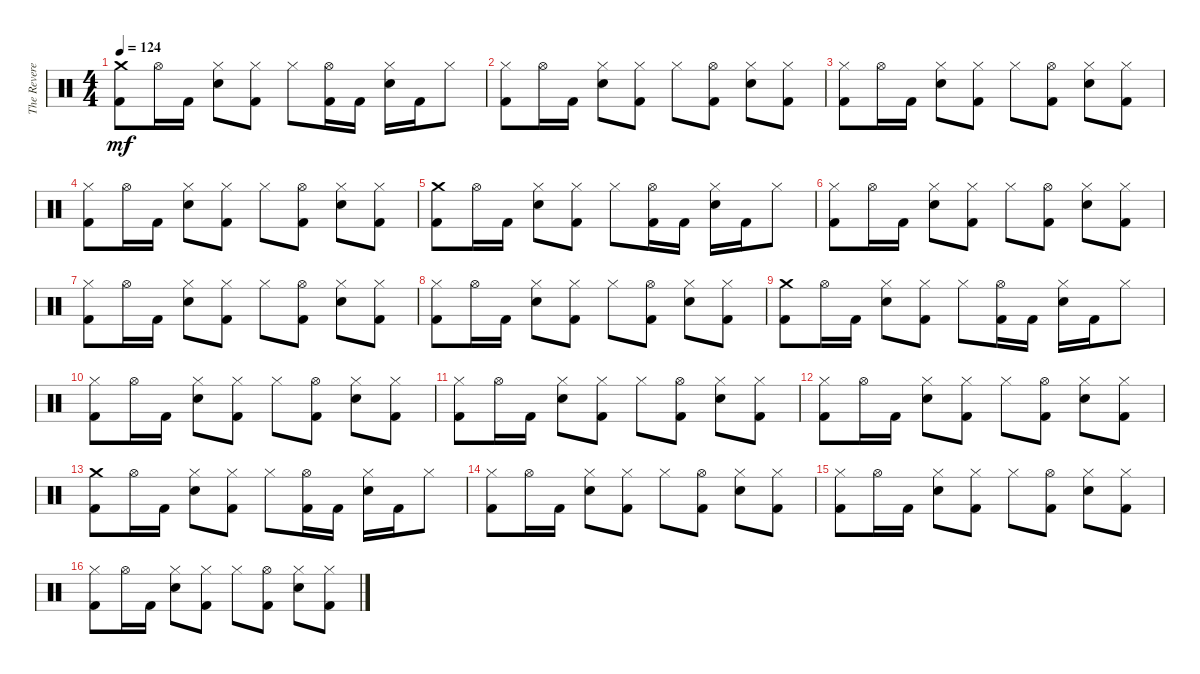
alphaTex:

\track ("The Reverend" "The Revere") {instrument percussion}
\staff {score}
\articulation defaults
\ts (4 4)
\tempo 124
\clef neutral
\ks c
("Crash medium (hit)" "Kick (hit) 2").8{dy mf} "Hi-Hat (open)".16 "Kick (hit) 2".16 ("Hi-Hat (closed)" "Electric Snare (hit)").8 ("Hi-Hat (closed)" "Kick (hit) 2").8 "Hi-Hat (closed)".8 ("Hi-Hat (open)" "Kick (hit) 2").16 "Kick (hit) 2".16 ("Hi-Hat (closed)" "Electric Snare (hit)").16 "Kick (hit) 2".16 "Hi-Hat (closed)".8 |
("Hi-Hat (closed)" "Kick (hit) 2").8 "Hi-Hat (open)".16 "Kick (hit) 2".16 ("Hi-Hat (closed)" "Electric Snare (hit)").8 ("Hi-Hat (closed)" "Kick (hit) 2").8 "Hi-Hat (closed)".8 ("Hi-Hat (open)" "Kick (hit) 2").8 ("Hi-Hat (closed)" "Electric Snare (hit)").8 ("Hi-Hat (closed)" "Kick (hit) 2").8 |
("Hi-Hat (closed)" "Kick (hit) 2").8 "Hi-Hat (open)".16 "Kick (hit) 2".16 ("Hi-Hat (closed)" "Electric Snare (hit)").8 ("Hi-Hat (closed)" "Kick (hit) 2").8 "Hi-Hat (closed)".8 ("Hi-Hat (open)" "Kick (hit) 2").8 ("Hi-Hat (closed)" "Electric Snare (hit)").8 ("Hi-Hat (closed)" "Kick (hit) 2").8 |
("Hi-Hat (closed)" "Kick (hit) 2").8 "Hi-Hat (open)".16 "Kick (hit) 2".16 ("Hi-Hat (closed)" "Electric Snare (hit)").8 ("Hi-Hat (closed)" "Kick (hit) 2").8 "Hi-Hat (closed)".8 ("Hi-Hat (open)" "Kick (hit) 2").8 ("Hi-Hat (closed)" "Electric Snare (hit)").8 ("Hi-Hat (closed)" "Kick (hit) 2").8 |
("Crash medium (hit)" "Kick (hit) 2").8 "Hi-Hat (open)".16 "Kick (hit) 2".16 ("Hi-Hat (closed)" "Electric Snare (hit)").8 ("Hi-Hat (closed)" "Kick (hit) 2").8 "Hi-Hat (closed)".8 ("Hi-Hat (open)" "Kick (hit) 2").16 "Kick (hit) 2".16 ("Hi-Hat (closed)" "Electric Snare (hit)").16 "Kick (hit) 2".16 "Hi-Hat (closed)".8 |
("Hi-Hat (closed)" "Kick (hit) 2").8 "Hi-Hat (open)".16 "Kick (hit) 2".16 ("Hi-Hat (closed)" "Electric Snare (hit)").8 ("Hi-Hat (closed)" "Kick (hit) 2").8 "Hi-Hat (closed)".8 ("Hi-Hat (open)" "Kick (hit) 2").8 ("Hi-Hat (closed)" "Electric Snare (hit)").8 ("Hi-Hat (closed)" "Kick (hit) 2").8 |
("Hi-Hat (closed)" "Kick (hit) 2").8 "Hi-Hat (open)".16 "Kick (hit) 2".16 ("Hi-Hat (closed)" "Electric Snare (hit)").8 ("Hi-Hat (closed)" "Kick (hit) 2").8 "Hi-Hat (closed)".8 ("Hi-Hat (open)" "Kick (hit) 2").8 ("Hi-Hat (closed)" "Electric Snare (hit)").8 ("Hi-Hat (closed)" "Kick (hit) 2").8 |
("Hi-Hat (closed)" "Kick (hit) 2").8 "Hi-Hat (open)".16 "Kick (hit) 2".16 ("Hi-Hat (closed)" "Electric Snare (hit)").8 ("Hi-Hat (closed)" "Kick (hit) 2").8 "Hi-Hat (closed)".8 ("Hi-Hat (open)" "Kick (hit) 2").8 ("Hi-Hat (closed)" "Electric Snare (hit)").8 ("Hi-Hat (closed)" "Kick (hit) 2").8 |
("Crash medium (hit)" "Kick (hit) 2").8 "Hi-Hat (open)".16 "Kick (hit) 2".16 ("Hi-Hat (closed)" "Electric Snare (hit)").8 ("Hi-Hat (closed)" "Kick (hit) 2").8 "Hi-Hat (closed)".8 ("Hi-Hat (open)" "Kick (hit) 2").16 "Kick (hit) 2".16 ("Hi-Hat (closed)" "Electric Snare (hit)").16 "Kick (hit) 2".16 "Hi-Hat (closed)".8 |
("Hi-Hat (closed)" "Kick (hit) 2").8 "Hi-Hat (open)".16 "Kick (hit) 2".16 ("Hi-Hat (closed)" "Electric Snare (hit)").8 ("Hi-Hat (closed)" "Kick (hit) 2").8 "Hi-Hat (closed)".8 ("Hi-Hat (open)" "Kick (hit) 2").8 ("Hi-Hat (closed)" "Electric Snare (hit)").8 ("Hi-Hat (closed)" "Kick (hit) 2").8 |
("Hi-Hat (closed)" "Kick (hit) 2").8 "Hi-Hat (open)".16 "Kick (hit) 2".16 ("Hi-Hat (closed)" "Electric Snare (hit)").8 ("Hi-Hat (closed)" "Kick (hit) 2").8 "Hi-Hat (closed)".8 ("Hi-Hat (open)" "Kick (hit) 2").8 ("Hi-Hat (closed)" "Electric Snare (hit)").8 ("Hi-Hat (closed)" "Kick (hit) 2").8 |
("Hi-Hat (closed)" "Kick (hit) 2").8 "Hi-Hat (open)".16 "Kick (hit) 2".16 ("Hi-Hat (closed)" "Electric Snare (hit)").8 ("Hi-Hat (closed)" "Kick (hit) 2").8 "Hi-Hat (closed)".8 ("Hi-Hat (open)" "Kick (hit) 2").8 ("Hi-Hat (closed)" "Electric Snare (hit)").8 ("Hi-Hat (closed)" "Kick (hit) 2").8 |
("Crash medium (hit)" "Kick (hit) 2").8 "Hi-Hat (open)".16 "Kick (hit) 2".16 ("Hi-Hat (closed)" "Electric Snare (hit)").8 ("Hi-Hat (closed)" "Kick (hit) 2").8 "Hi-Hat (closed)".8 ("Hi-Hat (open)" "Kick (hit) 2").16 "Kick (hit) 2".16 ("Hi-Hat (closed)" "Electric Snare (hit)").16 "Kick (hit) 2".16 "Hi-Hat (closed)".8 |
("Hi-Hat (closed)" "Kick (hit) 2").8 "Hi-Hat (open)".16 "Kick (hit) 2".16 ("Hi-Hat (closed)" "Electric Snare (hit)").8 ("Hi-Hat (closed)" "Kick (hit) 2").8 "Hi-Hat (closed)".8 ("Hi-Hat (open)" "Kick (hit) 2").8 ("Hi-Hat (closed)" "Electric Snare (hit)").8 ("Hi-Hat (closed)" "Kick (hit) 2").8 |
("Hi-Hat (closed)" "Kick (hit) 2").8 "Hi-Hat (open)".16 "Kick (hit) 2".16 ("Hi-Hat (closed)" "Electric Snare (hit)").8 ("Hi-Hat (closed)" "Kick (hit) 2").8 "Hi-Hat (closed)".8 ("Hi-Hat (open)" "Kick (hit) 2").8 ("Hi-Hat (closed)" "Electric Snare (hit)").8 ("Hi-Hat (closed)" "Kick (hit) 2").8 |
("Hi-Hat (closed)" "Kick (hit) 2").8 "Hi-Hat (open)".16 "Kick (hit) 2".16 ("Hi-Hat (closed)" "Electric Snare (hit)").8 ("Hi-Hat (closed)" "Kick (hit) 2").8 "Hi-Hat (closed)".8 ("Hi-Hat (open)" "Kick (hit) 2").8 ("Hi-Hat (closed)" "Electric Snare (hit)").8 ("Hi-Hat (closed)" "Kick (hit) 2").8
